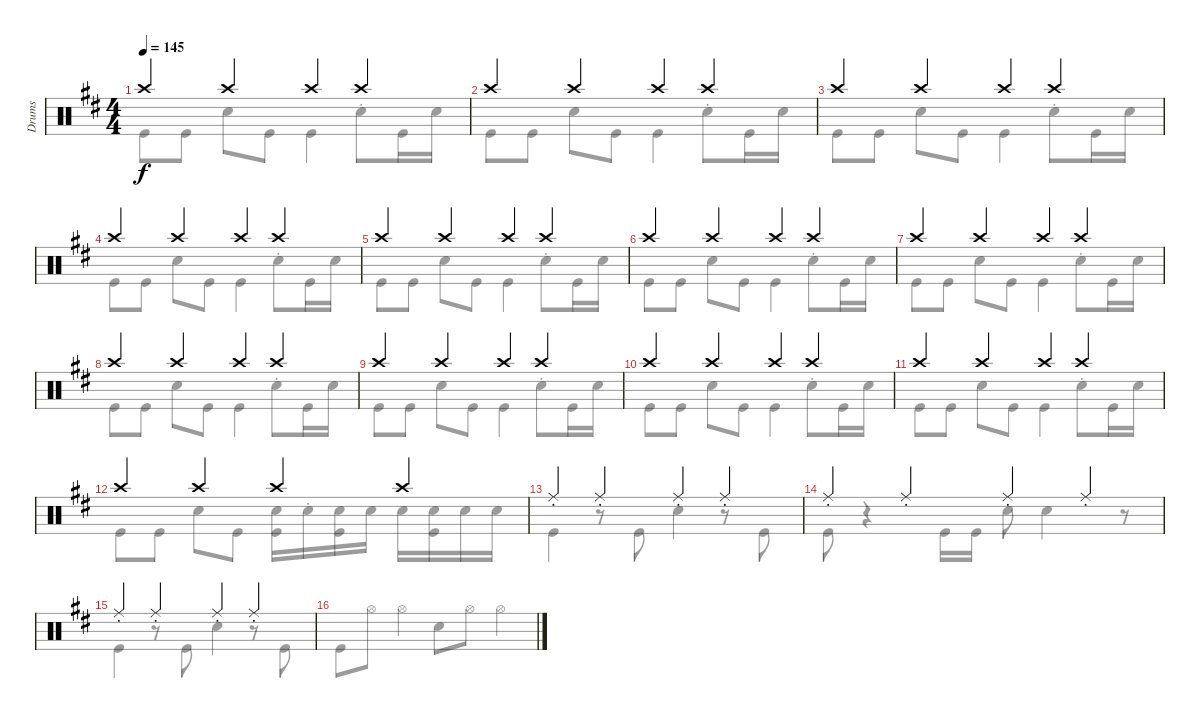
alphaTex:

\track ("Drums" "Drums") {instrument percussion}
\staff {score}
\articulation defaults
\voice
\ts (4 4)
\tempo 145
\clef neutral
\ks d "Crash high (hit)".4{dy f} "Crash high (hit)".4 "Crash high (hit)".4 "Crash high (hit)".4
|
"Crash high (hit)".4 "Crash high (hit)".4 "Crash high (hit)".4 "Crash high (hit)".4 |
"Crash high (hit)".4 "Crash high (hit)".4 "Crash high (hit)".4 "Crash high (hit)".4 |
"Crash high (hit)".4 "Crash high (hit)".4 "Crash high (hit)".4 "Crash high (hit)".4 |
"Crash high (hit)".4 "Crash high (hit)".4 "Crash high (hit)".4 "Crash high (hit)".4 |
"Crash high (hit)".4 "Crash high (hit)".4 "Crash high (hit)".4 "Crash high (hit)".4 |
"Crash high (hit)".4 "Crash high (hit)".4 "Crash high (hit)".4 "Crash high (hit)".4 |
"Crash high (hit)".4 "Crash high (hit)".4 "Crash high (hit)".4 "Crash high (hit)".4 |
"Crash high (hit)".4 "Crash high (hit)".4 "Crash high (hit)".4 "Crash high (hit)".4 |
"Crash high (hit)".4 "Crash high (hit)".4 "Crash high (hit)".4 "Crash high (hit)".4 |
"Crash high (hit)".4 "Crash high (hit)".4 "Crash high (hit)".4 "Crash high (hit)".4 |
"Crash high (hit)".4 "Crash high (hit)".4 "Crash high (hit)".4 "Crash high (hit)".4 |
"Ride (middle)"{st}.4 "Ride (middle)"{st}.4 "Ride (middle)"{st}.4 "Ride (middle)"{st}.4 |
"Ride (middle)"{st}.4 "Ride (middle)"{st}.4 "Ride (middle)"{st}.4 "Ride (middle)"{st}.4 |
"Ride (middle)"{st}.4 "Ride (middle)"{st}.4 "Ride (middle)"{st}.4 "Ride (middle)"{st}.4 |
\voice
\clef neutral
\ottava regular
\simile none
\ks d "Kick (hit)".8{dy f} "Kick (hit)".8 "Electric Snare (hit)".8 "Kick (hit)".8 "Kick (hit)".4 "Electric Snare (hit)"{st}.8 "Kick (hit)".16 "Electric Snare (hit)".16
|
"Kick (hit)".8 "Kick (hit)".8 "Electric Snare (hit)".8 "Kick (hit)".8 "Kick (hit)".4 "Electric Snare (hit)"{st}.8 "Kick (hit)".16 "Electric Snare (hit)".16 |
"Kick (hit)".8 "Kick (hit)".8 "Electric Snare (hit)".8 "Kick (hit)".8 "Kick (hit)".4 "Electric Snare (hit)"{st}.8 "Kick (hit)".16 "Electric Snare (hit)".16 |
"Kick (hit)".8 "Kick (hit)".8 "Electric Snare (hit)".8 "Kick (hit)".8 "Kick (hit)".4 "Electric Snare (hit)"{st}.8 "Kick (hit)".16 "Electric Snare (hit)".16 |
"Kick (hit)".8 "Kick (hit)".8 "Electric Snare (hit)".8 "Kick (hit)".8 "Kick (hit)".4 "Electric Snare (hit)"{st}.8 "Kick (hit)".16 "Electric Snare (hit)".16 |
"Kick (hit)".8 "Kick (hit)".8 "Electric Snare (hit)".8 "Kick (hit)".8 "Kick (hit)".4 "Electric Snare (hit)"{st}.8 "Kick (hit)".16 "Electric Snare (hit)".16 |
"Kick (hit)".8 "Kick (hit)".8 "Electric Snare (hit)".8 "Kick (hit)".8 "Kick (hit)".4 "Electric Snare (hit)"{st}.8 "Kick (hit)".16 "Electric Snare (hit)".16 |
"Kick (hit)".8 "Kick (hit)".8 "Electric Snare (hit)".8 "Kick (hit)".8 "Kick (hit)".4 "Electric Snare (hit)"{st}.8 "Kick (hit)".16 "Electric Snare (hit)".16 |
"Kick (hit)".8 "Kick (hit)".8 "Electric Snare (hit)".8 "Kick (hit)".8 "Kick (hit)".4 "Electric Snare (hit)"{st}.8 "Kick (hit)".16 "Electric Snare (hit)".16 |
"Kick (hit)".8 "Kick (hit)".8 "Electric Snare (hit)".8 "Kick (hit)".8 "Kick (hit)".4 "Electric Snare (hit)"{st}.8 "Kick (hit)".16 "Electric Snare (hit)".16 |
"Kick (hit)".8 "Kick (hit)".8 "Electric Snare (hit)".8 "Kick (hit)".8 "Kick (hit)".4 "Electric Snare (hit)"{st}.8 "Kick (hit)".16 "Electric Snare (hit)".16 |
"Kick (hit)".8 "Kick (hit)".8 "Electric Snare (hit)".8 "Kick (hit)".8 ("Electric Snare (hit)" "Kick (hit)").16 "Electric Snare (hit)"{st}.16 ("Electric Snare (hit)" "Kick (hit)").16 "Electric Snare (hit)".16 "Electric Snare (hit)".16 ("Electric Snare (hit)" "Kick (hit)").16 "Electric Snare (hit)".16 "Electric Snare (hit)".16 |
"Kick (hit)".4 r.8 "Kick (hit)".8 "Electric Snare (hit)".4 r.8 "Kick (hit)".8 |
"Kick (hit)".8 r.4 "Kick (hit)".16 "Kick (hit)".16 "Electric Snare (hit)".8 "Electric Snare (hit)".4 r.8 |
"Kick (hit)".4 r.8 "Kick (hit)".8 "Electric Snare (hit)".4 r.8 "Kick (hit)".8 |
"Kick (hit)".8 "Hi-Hat (open)".8 "Hi-Hat (open)".4 "Electric Snare (hit)".8 "Hi-Hat (open)".8 "Hi-Hat (open)".4
